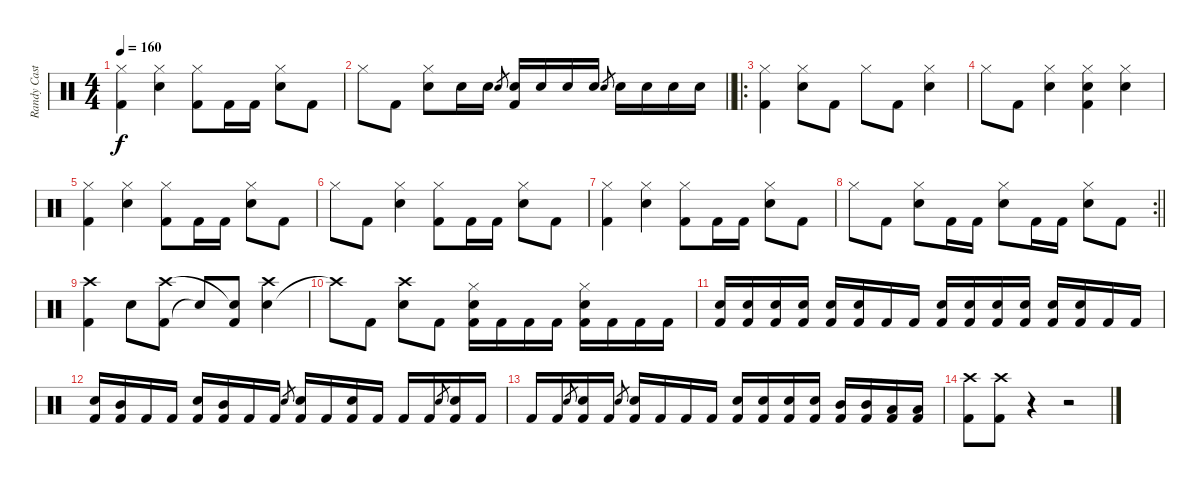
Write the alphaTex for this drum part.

\track ("Randy Castillo" "Randy Cast") {instrument percussion}
\staff {score}
\articulation defaults
\ts (4 4)
\tempo 160
\clef neutral
\ks aminor
("Hi-Hat (closed)" "Kick (hit) 2").4{dy f} ("Hi-Hat (closed)" "Snare (hit) 2").4 ("Hi-Hat (closed)" "Kick (hit) 2").8 "Kick (hit) 2".16 "Kick (hit) 2".16 ("Hi-Hat (closed)" "Snare (hit) 2").8 "Kick (hit) 2".8 |
\barLineRight lightlight "Hi-Hat (closed)".8 "Kick (hit) 2".8
("Hi-Hat (closed)" "Snare (hit) 2").8 "Snare (hit) 2".16 "Snare (hit) 2".16 "Snare (hit) 2".8{gr} ("Snare (hit) 2" "Kick (hit) 2").16 "Snare (hit) 2".16 "Snare (hit) 2".16 "Snare (hit) 2".16 "Snare (hit) 2".8{gr} "Snare (hit) 2".16 "Snare (hit) 2".16 "Snare (hit) 2".16 "Snare (hit) 2".16 |
\ro
("Hi-Hat (closed)" "Kick (hit) 2").4 ("Hi-Hat (closed)" "Snare (hit) 2").8 "Kick (hit) 2".8 "Hi-Hat (closed)".8 "Kick (hit) 2".8 ("Hi-Hat (closed)" "Snare (hit) 2").4 |
"Hi-Hat (closed)".8 "Kick (hit) 2".8 ("Hi-Hat (closed)" "Snare (hit) 2").4 ("Hi-Hat (closed)" "Snare (hit) 2" "Kick (hit) 2").4 ("Hi-Hat (closed)" "Snare (hit) 2").4 |
("Hi-Hat (closed)" "Kick (hit) 2").4 ("Hi-Hat (closed)" "Snare (hit) 2").4 ("Hi-Hat (closed)" "Kick (hit) 2").8 "Kick (hit) 2".16 "Kick (hit) 2".16 ("Hi-Hat (closed)" "Snare (hit) 2").8 "Kick (hit) 2".8 |
"Hi-Hat (closed)".8 "Kick (hit) 2".8 ("Hi-Hat (closed)" "Snare (hit) 2").4 ("Hi-Hat (closed)" "Kick (hit) 2").8 "Kick (hit) 2".16 "Kick (hit) 2".16 ("Hi-Hat (closed)" "Snare (hit) 2").8 "Kick (hit) 2".8 |
("Hi-Hat (closed)" "Kick (hit) 2").4 ("Hi-Hat (closed)" "Snare (hit) 2").4 ("Hi-Hat (closed)" "Kick (hit) 2").8 "Kick (hit) 2".16 "Kick (hit) 2".16 ("Hi-Hat (closed)" "Snare (hit) 2").8 "Kick (hit) 2".8 |
\rc 2
\barLineRight lightlight "Hi-Hat (closed)".8 "Kick (hit) 2".8
("Hi-Hat (closed)" "Snare (hit) 2").8 "Kick (hit) 2".16 "Kick (hit) 2".16 ("Hi-Hat (closed)" "Snare (hit) 2").8 "Kick (hit) 2".16 "Kick (hit) 2".16 ("Hi-Hat (closed)" "Snare (hit) 2").8 "Kick (hit) 2".8 |
("Kick (hit) 2" "Crash high (hit)").4 "Snare (hit) 2".8 ("Kick (hit) 2" "Crash high (hit)").8 "Snare (hit)"{t}.8 ("Kick (hit) 2" "Snare (hit)"{t}).8 ("Snare (hit) 2" "Crash high (hit)").4 |
"Crash high (hit)"{t}.8 "Kick (hit) 2".8 ("Snare (hit) 2" "Crash high (hit)").8 "Kick (hit) 2".8 ("Hi-Hat (closed)" "Snare (hit) 2" "Kick (hit) 2").16 "Kick (hit) 2".16 "Kick (hit) 2".16 "Kick (hit) 2".16 ("Hi-Hat (closed)" "Snare (hit) 2" "Kick (hit) 2").16 "Kick (hit) 2".16 "Kick (hit) 2".16 "Kick (hit) 2".16 |
("Snare (hit) 2" "Kick (hit) 2").16 ("Snare (hit) 2" "Kick (hit) 2").16 ("Snare (hit) 2" "Kick (hit) 2").16 ("Snare (hit) 2" "Kick (hit) 2").16 ("Snare (hit) 2" "Kick (hit) 2").16 ("Snare (hit) 2" "Kick (hit) 2").16 "Kick (hit) 2".16 "Kick (hit) 2".16 ("Snare (hit) 2" "Kick (hit) 2").16 ("Snare (hit) 2" "Kick (hit) 2").16 ("Snare (hit) 2" "Kick (hit) 2").16 ("Snare (hit) 2" "Kick (hit) 2").16 ("Snare (hit) 2" "Kick (hit) 2").16 ("Snare (hit) 2" "Kick (hit) 2").16 "Kick (hit) 2".16 "Kick (hit) 2".16 |
("Snare (hit) 2" "Kick (hit) 2").16 ("Mid Tom (hit)" "Kick (hit) 2").16 "Kick (hit) 2".16 "Kick (hit) 2".16 ("Snare (hit) 2" "Kick (hit) 2").16 ("Mid Tom (hit)" "Kick (hit) 2").16 "Kick (hit) 2".16 "Kick (hit) 2".16 "Snare (hit) 2".8{gr} ("Snare (hit) 2" "Kick (hit) 2").16 "Kick (hit) 2".16 ("Snare (hit) 2" "Kick (hit) 2").16 "Kick (hit) 2".16 "Kick (hit) 2".16 "Kick (hit) 2".16 "Snare (hit) 2".8{gr} ("Snare (hit) 2" "Kick (hit) 2").16 "Kick (hit) 2".16 |
"Kick (hit) 2".16 "Kick (hit) 2".16 "Snare (hit) 2".8{gr} ("Snare (hit) 2" "Kick (hit) 2").16 "Kick (hit) 2".16 "Snare (hit) 2".8{gr} ("Snare (hit) 2" "Kick (hit) 2").16 "Kick (hit) 2".16 "Kick (hit) 2".16 "Kick (hit) 2".16 ("Snare (hit) 2" "Kick (hit) 2").16 ("Snare (hit) 2" "Kick (hit) 2").16 ("Snare (hit) 2" "Kick (hit) 2").16 ("Snare (hit) 2" "Kick (hit) 2").16 ("Mid Tom (hit)" "Kick (hit) 2").16 ("Mid Tom (hit)" "Kick (hit) 2").16 ("Low Tom (hit)" "Kick (hit) 2").16 ("Low Tom (hit)" "Kick (hit) 2").16 |
("Kick (hit) 2" "Crash high (hit)").8 ("Kick (hit) 2" "Crash high (hit)").8 r.4 r.2
